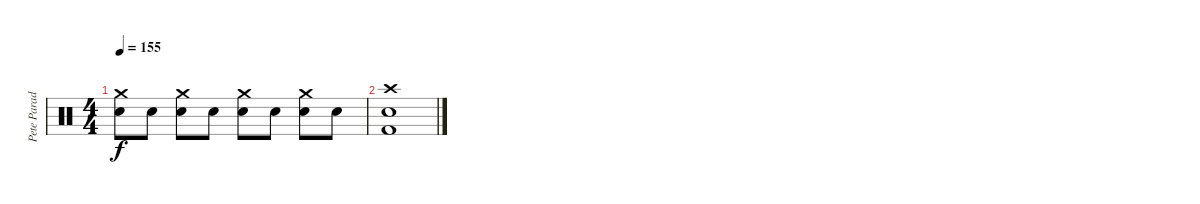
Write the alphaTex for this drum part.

\track ("Pete Parada - Drums" "Pete Parad") {instrument percussion}
\staff {score}
\articulation defaults
\ts (4 4)
\tempo 155
\clef neutral
\ks c
("Crash medium (hit)" "Electric Snare (hit)").8{dy f} "Electric Snare (hit)".8 ("Crash medium (hit)" "Electric Snare (hit)").8 "Electric Snare (hit)".8 ("Crash medium (hit)" "Electric Snare (hit)").8 "Electric Snare (hit)".8 ("Crash medium (hit)" "Electric Snare (hit)").8 "Electric Snare (hit)".8 |
("Crash high (hit)" "Electric Snare (hit)" "Kick (hit) 2").1
